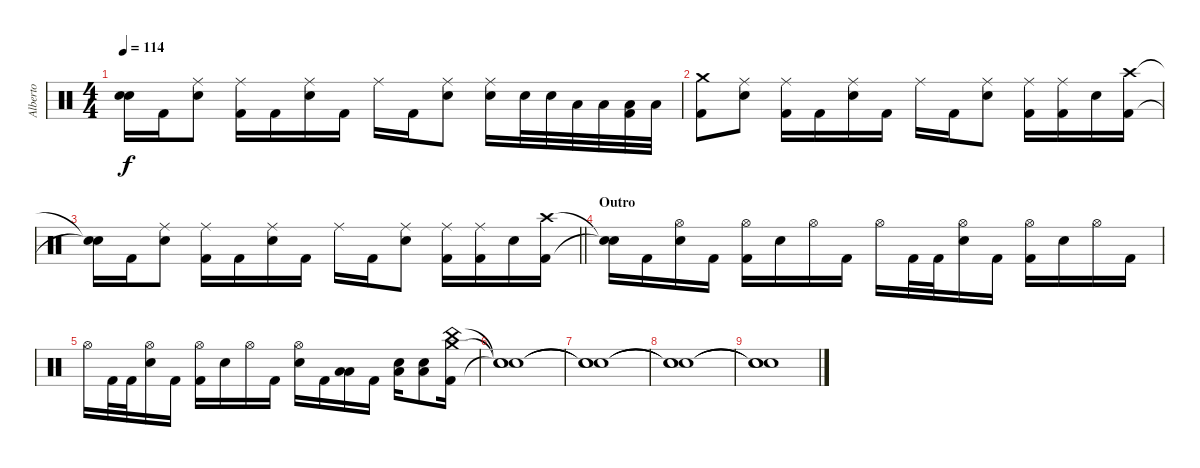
\track ("Alberto" "Alberto") {instrument percussion}
\staff
\articulation defaults
\ts (4 4)
\tempo 114
\clef neutral
\ks c
("Snare (hit)"{t} "Snare (hit)"{t}).16{dy f} "Kick (hit) 2".16 ("Ride (middle)" "Electric Snare (hit)").8 ("Ride (middle)" "Kick (hit) 2").16 "Kick (hit) 2".16 ("Ride (middle)" "Electric Snare (hit)").16 "Kick (hit) 2".16 "Ride (middle)".16 "Kick (hit) 2".16 ("Ride (middle)" "Electric Snare (hit)").8 ("Ride (middle)" "Electric Snare (hit)").16 "Electric Snare (hit)".32 "Electric Snare (hit)".32 "Low Tom (hit)".32 "Low Tom (hit)".32 ("Low Floor Tom (hit)" "Kick (hit) 2").32 "Low Floor Tom (hit)".32 |
("Crash medium (hit)" "Kick (hit) 2").8 ("Ride (middle)" "Electric Snare (hit)").8 ("Ride (middle)" "Kick (hit) 2").16 "Kick (hit) 2".16 ("Ride (middle)" "Electric Snare (hit)").16 "Kick (hit) 2".16 "Ride (middle)".16 "Kick (hit) 2".16 ("Ride (middle)" "Electric Snare (hit)").8 ("Ride (middle)" "Kick (hit) 2").16 ("Ride (middle)" "Kick (hit) 2").16 "Electric Snare (hit)".16 ("Crash high (hit)" "Kick (hit) 2").16 |
\barLineRight lightlight
("Snare (hit)"{t} "Snare (hit)"{t}).16 "Kick (hit) 2".16 ("Ride (middle)" "Electric Snare (hit)").8 ("Ride (middle)" "Kick (hit) 2").16 "Kick (hit) 2".16 ("Ride (middle)" "Electric Snare (hit)").16 "Kick (hit) 2".16 "Ride (middle)".16 "Kick (hit) 2".16 ("Ride (middle)" "Electric Snare (hit)").8 ("Ride (middle)" "Kick (hit) 2").16 ("Ride (middle)" "Kick (hit) 2").16 "Electric Snare (hit)".16 ("Crash high (hit)" "Kick (hit) 2").16 |
\section ("" "Outro")
("Snare (hit)"{t} "Snare (hit)"{t}).16 "Kick (hit) 2".16 ("Hi-Hat (open)" "Electric Snare (hit)").16 "Kick (hit) 2".16 ("Hi-Hat (open)" "Kick (hit) 2").16 "Electric Snare (hit)".16 "Hi-Hat (open)".16 "Kick (hit) 2".16 "Hi-Hat (open)".16 "Kick (hit) 2".32 "Kick (hit) 2".32 ("Hi-Hat (open)" "Electric Snare (hit)").16 "Kick (hit) 2".16 ("Hi-Hat (open)" "Kick (hit) 2").16 "Electric Snare (hit)".16 "Hi-Hat (open)".16 "Kick (hit) 2".16 |
"Hi-Hat (open)".16 "Kick (hit) 2".32 "Kick (hit) 2".32 ("Hi-Hat (open)" "Electric Snare (hit)").16 "Kick (hit) 2".16 ("Hi-Hat (open)" "Kick (hit) 2").16 "Electric Snare (hit)".16 "Hi-Hat (open)".16 "Kick (hit) 2".16 ("Hi-Hat (open)" "Electric Snare (hit)").16 "Kick (hit) 2".16 ("Low Tom (hit)" "Low Floor Tom (hit)").16 "Kick (hit) 2".16 ("Electric Snare (hit)" "Low Floor Tom (hit)").16 ("Electric Snare (hit)" "Low Floor Tom (hit)").8 ("Crash medium (hit)" "China (hit)" "Kick (hit) 2").16 |
("Snare (hit)"{t} "Snare (hit)"{t} "Snare (hit)"{t}).1 |
("Snare (hit)"{t} "Snare (hit)"{t} "Snare (hit)"{t}).1 |
("Snare (hit)"{t} "Snare (hit)"{t} "Snare (hit)"{t}).1 |
("Snare (hit)"{t} "Snare (hit)"{t} "Snare (hit)"{t}).1
